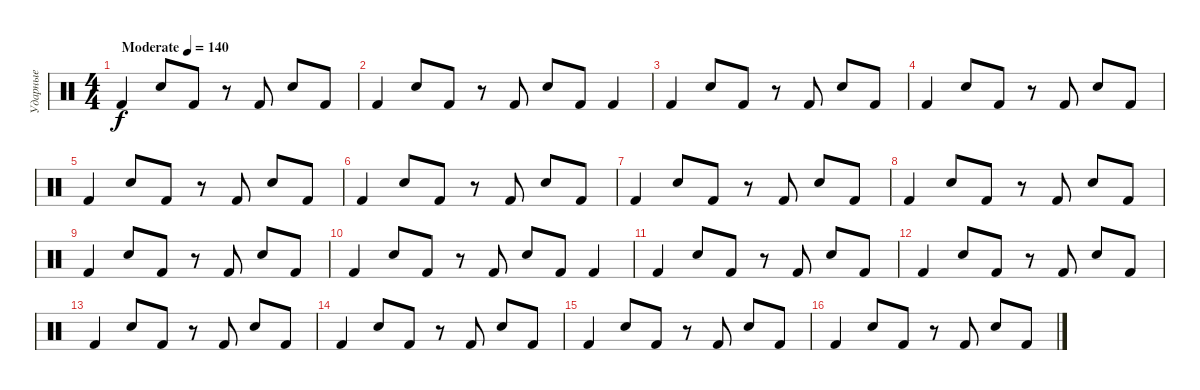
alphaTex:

\track ("Ударные" "Ударные") {instrument percussion}
\staff {score}
\articulation defaults
\ts (4 4)
\tempo (140 "Moderate")
\clef neutral
\ks c "Kick (hit) 2".4{dy f} "Snare (hit) 2".8 "Kick (hit) 2".8
r.8 "Kick (hit) 2".8 "Snare (hit) 2".8 "Kick (hit) 2".8 |
"Kick (hit) 2".4 "Snare (hit) 2".8 "Kick (hit) 2".8 r.8 "Kick (hit) 2".8 "Snare (hit) 2".8 "Kick (hit) 2".8 "Kick (hit) 2".4 |
"Kick (hit) 2".4 "Snare (hit) 2".8 "Kick (hit) 2".8 r.8 "Kick (hit) 2".8 "Snare (hit) 2".8 "Kick (hit) 2".8 |
"Kick (hit) 2".4 "Snare (hit) 2".8 "Kick (hit) 2".8 r.8 "Kick (hit) 2".8 "Snare (hit) 2".8 "Kick (hit) 2".8 |
"Kick (hit) 2".4 "Snare (hit) 2".8 "Kick (hit) 2".8 r.8 "Kick (hit) 2".8 "Snare (hit) 2".8 "Kick (hit) 2".8 |
"Kick (hit) 2".4 "Snare (hit) 2".8 "Kick (hit) 2".8 r.8 "Kick (hit) 2".8 "Snare (hit) 2".8 "Kick (hit) 2".8 |
"Kick (hit) 2".4 "Snare (hit) 2".8 "Kick (hit) 2".8 r.8 "Kick (hit) 2".8 "Snare (hit) 2".8 "Kick (hit) 2".8 |
"Kick (hit) 2".4 "Snare (hit) 2".8 "Kick (hit) 2".8 r.8 "Kick (hit) 2".8 "Snare (hit) 2".8 "Kick (hit) 2".8 |
"Kick (hit) 2".4 "Snare (hit) 2".8 "Kick (hit) 2".8 r.8 "Kick (hit) 2".8 "Snare (hit) 2".8 "Kick (hit) 2".8 |
"Kick (hit) 2".4 "Snare (hit) 2".8 "Kick (hit) 2".8 r.8 "Kick (hit) 2".8 "Snare (hit) 2".8 "Kick (hit) 2".8 "Kick (hit) 2".4 |
"Kick (hit) 2".4 "Snare (hit) 2".8 "Kick (hit) 2".8 r.8 "Kick (hit) 2".8 "Snare (hit) 2".8 "Kick (hit) 2".8 |
"Kick (hit) 2".4 "Snare (hit) 2".8 "Kick (hit) 2".8 r.8 "Kick (hit) 2".8 "Snare (hit) 2".8 "Kick (hit) 2".8 |
"Kick (hit) 2".4 "Snare (hit) 2".8 "Kick (hit) 2".8 r.8 "Kick (hit) 2".8 "Snare (hit) 2".8 "Kick (hit) 2".8 |
"Kick (hit) 2".4 "Snare (hit) 2".8 "Kick (hit) 2".8 r.8 "Kick (hit) 2".8 "Snare (hit) 2".8 "Kick (hit) 2".8 |
"Kick (hit) 2".4 "Snare (hit) 2".8 "Kick (hit) 2".8 r.8 "Kick (hit) 2".8 "Snare (hit) 2".8 "Kick (hit) 2".8 |
"Kick (hit) 2".4 "Snare (hit) 2".8 "Kick (hit) 2".8 r.8 "Kick (hit) 2".8 "Snare (hit) 2".8 "Kick (hit) 2".8
